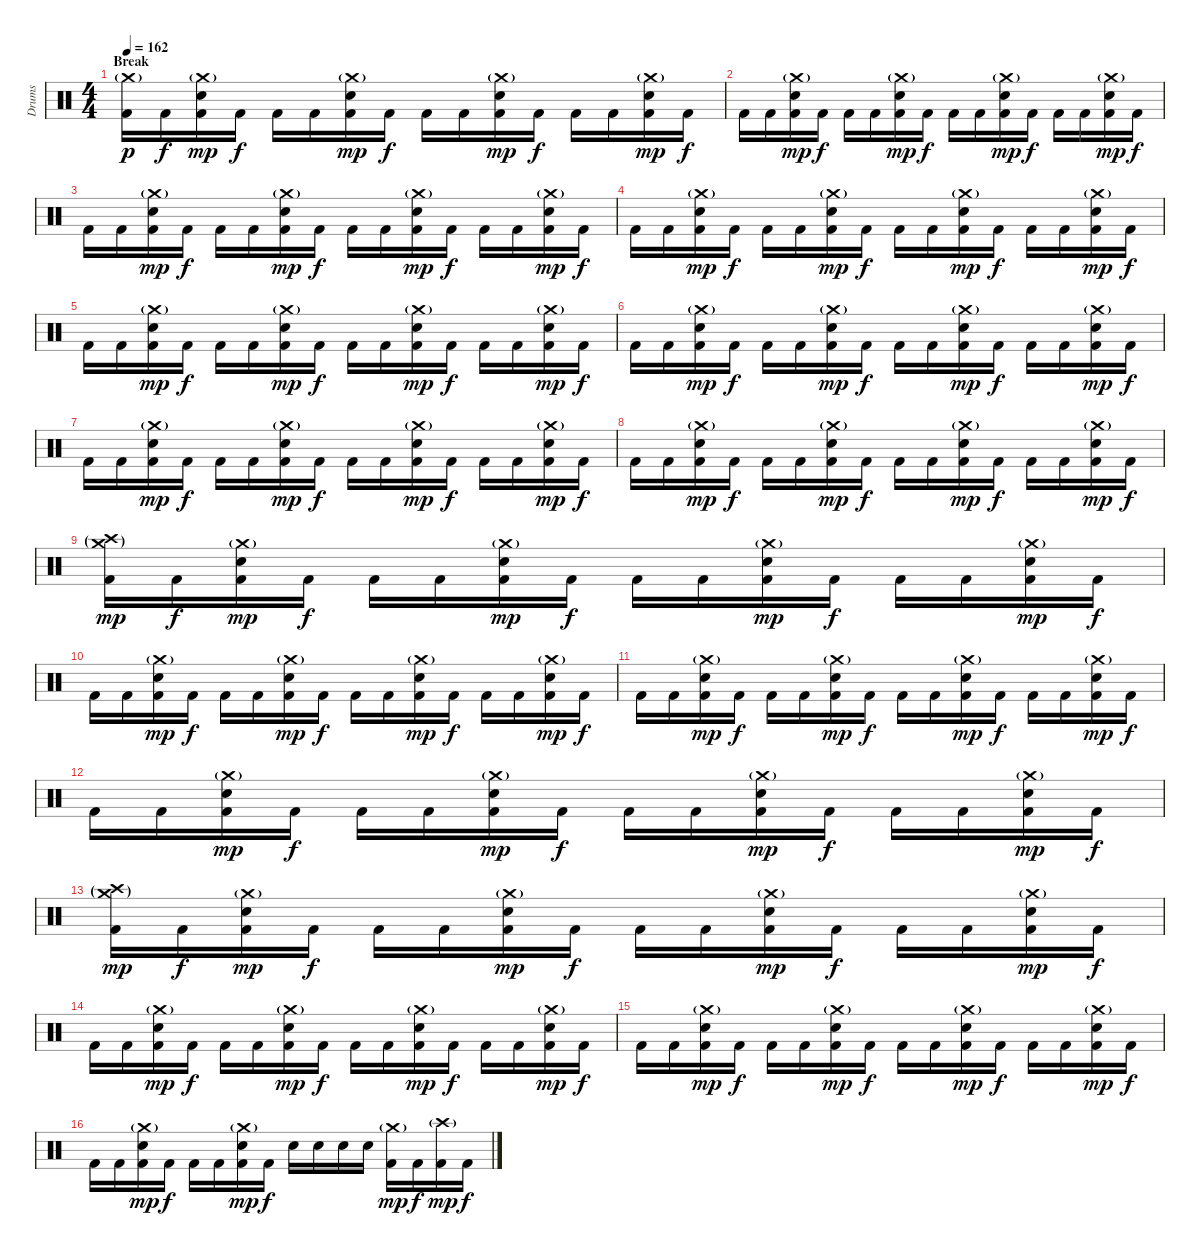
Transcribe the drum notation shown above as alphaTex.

\track ("Drums" "Drums") {instrument percussion}
\staff {score}
\articulation defaults
\ts (4 4)
\section ("" "Break")
\tempo 162
\clef neutral
\ks c
("Crash medium (hit)"{g} "Kick (hit) 2").16{dy p} "Kick (hit) 2".16{dy f} ("Crash medium (hit)"{g} "Snare (hit) 2" "Kick (hit) 2").16{dy mp} "Kick (hit) 2".16{dy f} "Kick (hit) 2".16 "Kick (hit) 2".16 ("Crash medium (hit)"{g} "Snare (hit) 2" "Kick (hit) 2").16{dy mp} "Kick (hit) 2".16{dy f} "Kick (hit) 2".16 "Kick (hit) 2".16 ("Crash medium (hit)"{g} "Snare (hit) 2" "Kick (hit) 2").16{dy mp} "Kick (hit) 2".16{dy f} "Kick (hit) 2".16 "Kick (hit) 2".16 ("Crash medium (hit)"{g} "Snare (hit) 2" "Kick (hit) 2").16{dy mp} "Kick (hit) 2".16{dy f} |
"Kick (hit) 2".16 "Kick (hit) 2".16 ("Crash medium (hit)"{g} "Snare (hit) 2" "Kick (hit) 2").16{dy mp} "Kick (hit) 2".16{dy f} "Kick (hit) 2".16 "Kick (hit) 2".16 ("Crash medium (hit)"{g} "Snare (hit) 2" "Kick (hit) 2").16{dy mp} "Kick (hit) 2".16{dy f} "Kick (hit) 2".16 "Kick (hit) 2".16 ("Crash medium (hit)"{g} "Snare (hit) 2" "Kick (hit) 2").16{dy mp} "Kick (hit) 2".16{dy f} "Kick (hit) 2".16 "Kick (hit) 2".16 ("Crash medium (hit)"{g} "Snare (hit) 2" "Kick (hit) 2").16{dy mp} "Kick (hit) 2".16{dy f} |
"Kick (hit) 2".16 "Kick (hit) 2".16 ("Crash medium (hit)"{g} "Snare (hit) 2" "Kick (hit) 2").16{dy mp} "Kick (hit) 2".16{dy f} "Kick (hit) 2".16 "Kick (hit) 2".16 ("Crash medium (hit)"{g} "Snare (hit) 2" "Kick (hit) 2").16{dy mp} "Kick (hit) 2".16{dy f} "Kick (hit) 2".16 "Kick (hit) 2".16 ("Crash medium (hit)"{g} "Snare (hit) 2" "Kick (hit) 2").16{dy mp} "Kick (hit) 2".16{dy f} "Kick (hit) 2".16 "Kick (hit) 2".16 ("Crash medium (hit)"{g} "Snare (hit) 2" "Kick (hit) 2").16{dy mp} "Kick (hit) 2".16{dy f} |
"Kick (hit) 2".16 "Kick (hit) 2".16 ("Crash medium (hit)"{g} "Snare (hit) 2" "Kick (hit) 2").16{dy mp} "Kick (hit) 2".16{dy f} "Kick (hit) 2".16 "Kick (hit) 2".16 ("Crash medium (hit)"{g} "Snare (hit) 2" "Kick (hit) 2").16{dy mp} "Kick (hit) 2".16{dy f} "Kick (hit) 2".16 "Kick (hit) 2".16 ("Crash medium (hit)"{g} "Snare (hit) 2" "Kick (hit) 2").16{dy mp} "Kick (hit) 2".16{dy f} "Kick (hit) 2".16 "Kick (hit) 2".16 ("Crash medium (hit)"{g} "Snare (hit) 2" "Kick (hit) 2").16{dy mp} "Kick (hit) 2".16{dy f} |
"Kick (hit) 2".16 "Kick (hit) 2".16 ("Crash medium (hit)"{g} "Snare (hit) 2" "Kick (hit) 2").16{dy mp} "Kick (hit) 2".16{dy f} "Kick (hit) 2".16 "Kick (hit) 2".16 ("Crash medium (hit)"{g} "Snare (hit) 2" "Kick (hit) 2").16{dy mp} "Kick (hit) 2".16{dy f} "Kick (hit) 2".16 "Kick (hit) 2".16 ("Crash medium (hit)"{g} "Snare (hit) 2" "Kick (hit) 2").16{dy mp} "Kick (hit) 2".16{dy f} "Kick (hit) 2".16 "Kick (hit) 2".16 ("Crash medium (hit)"{g} "Snare (hit) 2" "Kick (hit) 2").16{dy mp} "Kick (hit) 2".16{dy f} |
"Kick (hit) 2".16 "Kick (hit) 2".16 ("Crash medium (hit)"{g} "Snare (hit) 2" "Kick (hit) 2").16{dy mp} "Kick (hit) 2".16{dy f} "Kick (hit) 2".16 "Kick (hit) 2".16 ("Crash medium (hit)"{g} "Snare (hit) 2" "Kick (hit) 2").16{dy mp} "Kick (hit) 2".16{dy f} "Kick (hit) 2".16 "Kick (hit) 2".16 ("Crash medium (hit)"{g} "Snare (hit) 2" "Kick (hit) 2").16{dy mp} "Kick (hit) 2".16{dy f} "Kick (hit) 2".16 "Kick (hit) 2".16 ("Crash medium (hit)"{g} "Snare (hit) 2" "Kick (hit) 2").16{dy mp} "Kick (hit) 2".16{dy f} |
"Kick (hit) 2".16 "Kick (hit) 2".16 ("Crash medium (hit)"{g} "Snare (hit) 2" "Kick (hit) 2").16{dy mp} "Kick (hit) 2".16{dy f} "Kick (hit) 2".16 "Kick (hit) 2".16 ("Crash medium (hit)"{g} "Snare (hit) 2" "Kick (hit) 2").16{dy mp} "Kick (hit) 2".16{dy f} "Kick (hit) 2".16 "Kick (hit) 2".16 ("Crash medium (hit)"{g} "Snare (hit) 2" "Kick (hit) 2").16{dy mp} "Kick (hit) 2".16{dy f} "Kick (hit) 2".16 "Kick (hit) 2".16 ("Crash medium (hit)"{g} "Snare (hit) 2" "Kick (hit) 2").16{dy mp} "Kick (hit) 2".16{dy f} |
"Kick (hit) 2".16 "Kick (hit) 2".16 ("Crash medium (hit)"{g} "Snare (hit) 2" "Kick (hit) 2").16{dy mp} "Kick (hit) 2".16{dy f} "Kick (hit) 2".16 "Kick (hit) 2".16 ("Crash medium (hit)"{g} "Snare (hit) 2" "Kick (hit) 2").16{dy mp} "Kick (hit) 2".16{dy f} "Kick (hit) 2".16 "Kick (hit) 2".16 ("Crash medium (hit)"{g} "Snare (hit) 2" "Kick (hit) 2").16{dy mp} "Kick (hit) 2".16{dy f} "Kick (hit) 2".16 "Kick (hit) 2".16 ("Crash medium (hit)"{g} "Snare (hit) 2" "Kick (hit) 2").16{dy mp} "Kick (hit) 2".16{dy f} |
("Crash medium (hit)"{g} "Crash high (hit)"{g} "Kick (hit) 2").16{dy mp} "Kick (hit) 2".16{dy f} ("Crash medium (hit)"{g} "Snare (hit) 2" "Kick (hit) 2").16{dy mp} "Kick (hit) 2".16{dy f} "Kick (hit) 2".16 "Kick (hit) 2".16 ("Crash medium (hit)"{g} "Snare (hit) 2" "Kick (hit) 2").16{dy mp} "Kick (hit) 2".16{dy f} "Kick (hit) 2".16 "Kick (hit) 2".16 ("Crash medium (hit)"{g} "Snare (hit) 2" "Kick (hit) 2").16{dy mp} "Kick (hit) 2".16{dy f} "Kick (hit) 2".16 "Kick (hit) 2".16 ("Crash medium (hit)"{g} "Snare (hit) 2" "Kick (hit) 2").16{dy mp} "Kick (hit) 2".16{dy f} |
"Kick (hit) 2".16 "Kick (hit) 2".16 ("Crash medium (hit)"{g} "Snare (hit) 2" "Kick (hit) 2").16{dy mp} "Kick (hit) 2".16{dy f} "Kick (hit) 2".16 "Kick (hit) 2".16 ("Crash medium (hit)"{g} "Snare (hit) 2" "Kick (hit) 2").16{dy mp} "Kick (hit) 2".16{dy f} "Kick (hit) 2".16 "Kick (hit) 2".16 ("Crash medium (hit)"{g} "Snare (hit) 2" "Kick (hit) 2").16{dy mp} "Kick (hit) 2".16{dy f} "Kick (hit) 2".16 "Kick (hit) 2".16 ("Crash medium (hit)"{g} "Snare (hit) 2" "Kick (hit) 2").16{dy mp} "Kick (hit) 2".16{dy f} |
"Kick (hit) 2".16 "Kick (hit) 2".16 ("Crash medium (hit)"{g} "Snare (hit) 2" "Kick (hit) 2").16{dy mp} "Kick (hit) 2".16{dy f} "Kick (hit) 2".16 "Kick (hit) 2".16 ("Crash medium (hit)"{g} "Snare (hit) 2" "Kick (hit) 2").16{dy mp} "Kick (hit) 2".16{dy f} "Kick (hit) 2".16 "Kick (hit) 2".16 ("Crash medium (hit)"{g} "Snare (hit) 2" "Kick (hit) 2").16{dy mp} "Kick (hit) 2".16{dy f} "Kick (hit) 2".16 "Kick (hit) 2".16 ("Crash medium (hit)"{g} "Snare (hit) 2" "Kick (hit) 2").16{dy mp} "Kick (hit) 2".16{dy f} |
"Kick (hit) 2".16 "Kick (hit) 2".16 ("Crash medium (hit)"{g} "Snare (hit) 2" "Kick (hit) 2").16{dy mp} "Kick (hit) 2".16{dy f} "Kick (hit) 2".16 "Kick (hit) 2".16 ("Crash medium (hit)"{g} "Snare (hit) 2" "Kick (hit) 2").16{dy mp} "Kick (hit) 2".16{dy f} "Kick (hit) 2".16 "Kick (hit) 2".16 ("Crash medium (hit)"{g} "Snare (hit) 2" "Kick (hit) 2").16{dy mp} "Kick (hit) 2".16{dy f} "Kick (hit) 2".16 "Kick (hit) 2".16 ("Crash medium (hit)"{g} "Snare (hit) 2" "Kick (hit) 2").16{dy mp} "Kick (hit) 2".16{dy f} |
("Crash medium (hit)"{g} "Crash high (hit)"{g} "Kick (hit) 2").16{dy mp} "Kick (hit) 2".16{dy f} ("Crash medium (hit)"{g} "Snare (hit) 2" "Kick (hit) 2").16{dy mp} "Kick (hit) 2".16{dy f} "Kick (hit) 2".16 "Kick (hit) 2".16 ("Crash medium (hit)"{g} "Snare (hit) 2" "Kick (hit) 2").16{dy mp} "Kick (hit) 2".16{dy f} "Kick (hit) 2".16 "Kick (hit) 2".16 ("Crash medium (hit)"{g} "Snare (hit) 2" "Kick (hit) 2").16{dy mp} "Kick (hit) 2".16{dy f} "Kick (hit) 2".16 "Kick (hit) 2".16 ("Crash medium (hit)"{g} "Snare (hit) 2" "Kick (hit) 2").16{dy mp} "Kick (hit) 2".16{dy f} |
"Kick (hit) 2".16 "Kick (hit) 2".16 ("Crash medium (hit)"{g} "Snare (hit) 2" "Kick (hit) 2").16{dy mp} "Kick (hit) 2".16{dy f} "Kick (hit) 2".16 "Kick (hit) 2".16 ("Crash medium (hit)"{g} "Snare (hit) 2" "Kick (hit) 2").16{dy mp} "Kick (hit) 2".16{dy f} "Kick (hit) 2".16 "Kick (hit) 2".16 ("Crash medium (hit)"{g} "Snare (hit) 2" "Kick (hit) 2").16{dy mp} "Kick (hit) 2".16{dy f} "Kick (hit) 2".16 "Kick (hit) 2".16 ("Crash medium (hit)"{g} "Snare (hit) 2" "Kick (hit) 2").16{dy mp} "Kick (hit) 2".16{dy f} |
"Kick (hit) 2".16 "Kick (hit) 2".16 ("Crash medium (hit)"{g} "Snare (hit) 2" "Kick (hit) 2").16{dy mp} "Kick (hit) 2".16{dy f} "Kick (hit) 2".16 "Kick (hit) 2".16 ("Crash medium (hit)"{g} "Snare (hit) 2" "Kick (hit) 2").16{dy mp} "Kick (hit) 2".16{dy f} "Kick (hit) 2".16 "Kick (hit) 2".16 ("Crash medium (hit)"{g} "Snare (hit) 2" "Kick (hit) 2").16{dy mp} "Kick (hit) 2".16{dy f} "Kick (hit) 2".16 "Kick (hit) 2".16 ("Crash medium (hit)"{g} "Snare (hit) 2" "Kick (hit) 2").16{dy mp} "Kick (hit) 2".16{dy f} |
"Kick (hit) 2".16 "Kick (hit) 2".16 ("Crash medium (hit)"{g} "Snare (hit) 2" "Kick (hit) 2").16{dy mp} "Kick (hit) 2".16{dy f} "Kick (hit) 2".16 "Kick (hit) 2".16 ("Crash medium (hit)"{g} "Snare (hit) 2" "Kick (hit) 2").16{dy mp} "Kick (hit) 2".16{dy f} "Snare (hit) 2".16 "Snare (hit) 2".16 "Snare (hit) 2".16 "Snare (hit) 2".16 ("Crash medium (hit)"{g} "Kick (hit) 2").16{dy mp} "Kick (hit) 2".16{dy f} ("Crash high (hit)"{g} "Kick (hit) 2").16{dy mp} "Kick (hit) 2".16{dy f}
